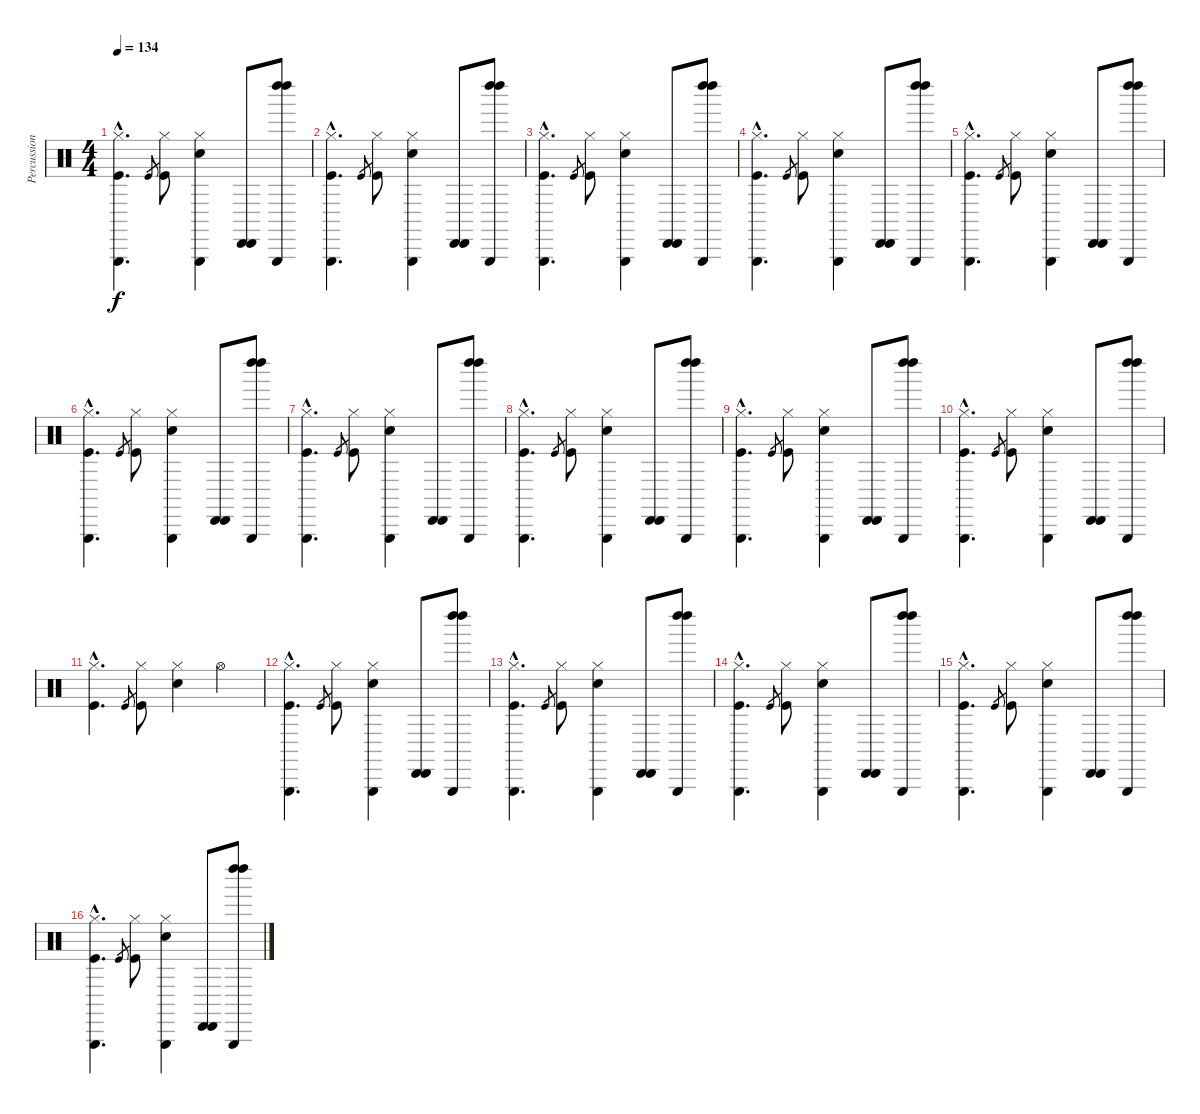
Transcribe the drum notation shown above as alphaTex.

\track ("Percussions" "Percussion") {instrument percussion}
\staff {score}
\articulation defaults
\ts (4 4)
\tempo 134
\clef neutral
\ks c
("Hi-Hat (closed)"{hac} "Triangle (hit)"{hac} "Kick (hit)"{hac}).4{d dy f} "Kick (hit)".8{gr} ("Hi-Hat (closed)" "Kick (hit)").8 ("Hi-Hat (closed)" "Triangle (hit)" "Electric Snare (hit)").4 ("Cabasa (hit)" "Cabasa (hit)").8 ("Left Maraca (hit)" "Left Maraca (hit)" "Triangle (hit)").8 |
("Hi-Hat (closed)"{hac} "Triangle (hit)"{hac} "Kick (hit)"{hac}).4{d} "Kick (hit)".8{gr} ("Hi-Hat (closed)" "Kick (hit)").8 ("Hi-Hat (closed)" "Triangle (hit)" "Electric Snare (hit)").4 ("Cabasa (hit)" "Cabasa (hit)").8 ("Left Maraca (hit)" "Left Maraca (hit)" "Triangle (hit)").8 |
("Hi-Hat (closed)"{hac} "Triangle (hit)"{hac} "Kick (hit)"{hac}).4{d} "Kick (hit)".8{gr} ("Hi-Hat (closed)" "Kick (hit)").8 ("Hi-Hat (closed)" "Triangle (hit)" "Electric Snare (hit)").4 ("Cabasa (hit)" "Cabasa (hit)").8 ("Left Maraca (hit)" "Left Maraca (hit)" "Triangle (hit)").8 |
("Hi-Hat (closed)"{hac} "Triangle (hit)"{hac} "Kick (hit)"{hac}).4{d} "Kick (hit)".8{gr} ("Hi-Hat (closed)" "Kick (hit)").8 ("Hi-Hat (closed)" "Triangle (hit)" "Electric Snare (hit)").4 ("Cabasa (hit)" "Cabasa (hit)").8 ("Left Maraca (hit)" "Left Maraca (hit)" "Triangle (hit)").8 |
("Hi-Hat (closed)"{hac} "Triangle (hit)"{hac} "Kick (hit)"{hac}).4{d} "Kick (hit)".8{gr} ("Hi-Hat (closed)" "Kick (hit)").8 ("Hi-Hat (closed)" "Triangle (hit)" "Electric Snare (hit)").4 ("Cabasa (hit)" "Cabasa (hit)").8 ("Left Maraca (hit)" "Left Maraca (hit)" "Triangle (hit)").8 |
("Hi-Hat (closed)"{hac} "Triangle (hit)"{hac} "Kick (hit)"{hac}).4{d} "Kick (hit)".8{gr} ("Hi-Hat (closed)" "Kick (hit)").8 ("Hi-Hat (closed)" "Triangle (hit)" "Electric Snare (hit)").4 ("Cabasa (hit)" "Cabasa (hit)").8 ("Left Maraca (hit)" "Left Maraca (hit)" "Triangle (hit)").8 |
("Hi-Hat (closed)"{hac} "Triangle (hit)"{hac} "Kick (hit)"{hac}).4{d} "Kick (hit)".8{gr} ("Hi-Hat (closed)" "Kick (hit)").8 ("Hi-Hat (closed)" "Triangle (hit)" "Electric Snare (hit)").4 ("Cabasa (hit)" "Cabasa (hit)").8 ("Left Maraca (hit)" "Left Maraca (hit)" "Triangle (hit)").8 |
("Hi-Hat (closed)"{hac} "Triangle (hit)"{hac} "Kick (hit)"{hac}).4{d} "Kick (hit)".8{gr} ("Hi-Hat (closed)" "Kick (hit)").8 ("Hi-Hat (closed)" "Triangle (hit)" "Electric Snare (hit)").4 ("Cabasa (hit)" "Cabasa (hit)").8 ("Left Maraca (hit)" "Left Maraca (hit)" "Triangle (hit)").8 |
("Hi-Hat (closed)"{hac} "Triangle (hit)"{hac} "Kick (hit)"{hac}).4{d} "Kick (hit)".8{gr} ("Hi-Hat (closed)" "Kick (hit)").8 ("Hi-Hat (closed)" "Triangle (hit)" "Electric Snare (hit)").4 ("Cabasa (hit)" "Cabasa (hit)").8 ("Left Maraca (hit)" "Left Maraca (hit)" "Triangle (hit)").8 |
("Hi-Hat (closed)"{hac} "Triangle (hit)"{hac} "Kick (hit)"{hac}).4{d} "Kick (hit)".8{gr} ("Hi-Hat (closed)" "Kick (hit)").8 ("Hi-Hat (closed)" "Triangle (hit)" "Electric Snare (hit)").4 ("Cabasa (hit)" "Cabasa (hit)").8 ("Left Maraca (hit)" "Left Maraca (hit)" "Triangle (hit)").8 |
("Hi-Hat (closed)"{hac} "Kick (hit)"{hac}).4{d} "Kick (hit)".8{gr} ("Hi-Hat (closed)" "Kick (hit)").8 ("Hi-Hat (closed)" "Electric Snare (hit)").4 "Hi-Hat (open)".4 |
("Hi-Hat (closed)"{hac} "Triangle (hit)"{hac} "Kick (hit)"{hac}).4{d} "Kick (hit)".8{gr} ("Hi-Hat (closed)" "Kick (hit)").8 ("Hi-Hat (closed)" "Triangle (hit)" "Electric Snare (hit)").4 ("Cabasa (hit)" "Cabasa (hit)").8 ("Left Maraca (hit)" "Left Maraca (hit)" "Triangle (hit)").8 |
("Hi-Hat (closed)"{hac} "Triangle (hit)"{hac} "Kick (hit)"{hac}).4{d} "Kick (hit)".8{gr} ("Hi-Hat (closed)" "Kick (hit)").8 ("Hi-Hat (closed)" "Triangle (hit)" "Electric Snare (hit)").4 ("Cabasa (hit)" "Cabasa (hit)").8 ("Left Maraca (hit)" "Left Maraca (hit)" "Triangle (hit)").8 |
("Hi-Hat (closed)"{hac} "Triangle (hit)"{hac} "Kick (hit)"{hac}).4{d} "Kick (hit)".8{gr} ("Hi-Hat (closed)" "Kick (hit)").8 ("Hi-Hat (closed)" "Triangle (hit)" "Electric Snare (hit)").4 ("Cabasa (hit)" "Cabasa (hit)").8 ("Left Maraca (hit)" "Left Maraca (hit)" "Triangle (hit)").8 |
("Hi-Hat (closed)"{hac} "Triangle (hit)"{hac} "Kick (hit)"{hac}).4{d} "Kick (hit)".8{gr} ("Hi-Hat (closed)" "Kick (hit)").8 ("Hi-Hat (closed)" "Triangle (hit)" "Electric Snare (hit)").4 ("Cabasa (hit)" "Cabasa (hit)").8 ("Left Maraca (hit)" "Left Maraca (hit)" "Triangle (hit)").8 |
("Hi-Hat (closed)"{hac} "Triangle (hit)"{hac} "Kick (hit)"{hac}).4{d} "Kick (hit)".8{gr} ("Hi-Hat (closed)" "Kick (hit)").8 ("Hi-Hat (closed)" "Triangle (hit)" "Electric Snare (hit)").4 ("Cabasa (hit)" "Cabasa (hit)").8 ("Left Maraca (hit)" "Left Maraca (hit)" "Triangle (hit)").8
